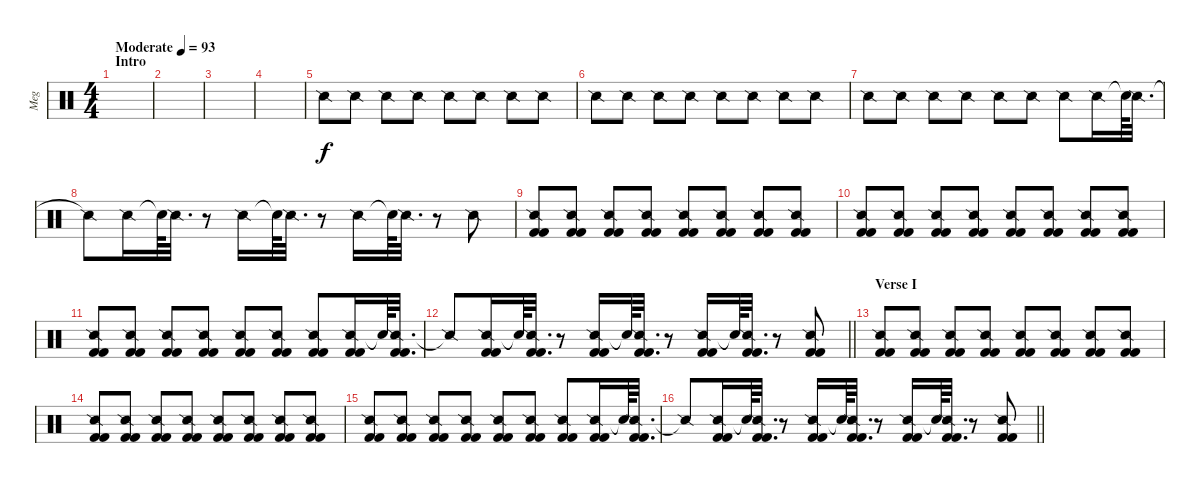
\track ("Meg" "Meg") {instrument percussion}
\staff {score}
\articulation defaults
\ts (4 4)
\section ("" "Intro")
\tempo (93 "Moderate")
\clef neutral
\ks c
|
|
|
|
"Snare (side stick) 2".8 "Snare (side stick) 2".8 "Snare (side stick) 2".8 "Snare (side stick) 2".8 "Snare (side stick) 2".8 "Snare (side stick) 2".8 "Snare (side stick) 2".8 "Snare (side stick) 2".8 |
"Snare (side stick) 2".8 "Snare (side stick) 2".8 "Snare (side stick) 2".8 "Snare (side stick) 2".8 "Snare (side stick) 2".8 "Snare (side stick) 2".8 "Snare (side stick) 2".8 "Snare (side stick) 2".8 |
"Snare (side stick) 2".8 "Snare (side stick) 2".8 "Snare (side stick) 2".8 "Snare (side stick) 2".8 "Snare (side stick) 2".8 "Snare (side stick) 2".8 "Snare (side stick) 2".8 "Snare (side stick) 2".16 "Snare (hit)"{t}.64 "Snare (side stick) 2".32{d} |
"Snare (side stick) 2"{t}.8 "Snare (side stick) 2".16 "Snare (hit)"{t}.64 "Snare (side stick) 2".32{d} r.8 "Snare (side stick) 2".16 "Snare (hit)"{t}.64 "Snare (side stick) 2".32{d} r.8 "Snare (side stick) 2".16 "Snare (hit)"{t}.64 "Snare (side stick) 2".32{d} r.8 "Snare (side stick) 2".8 |
("Snare (side stick) 2" "Kick (hit) 2" "Kick (hit) 2").8 ("Snare (side stick) 2" "Kick (hit) 2" "Kick (hit) 2").8 ("Snare (side stick) 2" "Kick (hit) 2" "Kick (hit) 2").8 ("Snare (side stick) 2" "Kick (hit) 2" "Kick (hit) 2").8 ("Snare (side stick) 2" "Kick (hit) 2" "Kick (hit) 2").8 ("Snare (side stick) 2" "Kick (hit) 2" "Kick (hit) 2").8 ("Snare (side stick) 2" "Kick (hit) 2" "Kick (hit) 2").8 ("Snare (side stick) 2" "Kick (hit) 2" "Kick (hit) 2").8 |
("Snare (side stick) 2" "Kick (hit) 2" "Kick (hit) 2").8 ("Snare (side stick) 2" "Kick (hit) 2" "Kick (hit) 2").8 ("Snare (side stick) 2" "Kick (hit) 2" "Kick (hit) 2").8 ("Snare (side stick) 2" "Kick (hit) 2" "Kick (hit) 2").8 ("Snare (side stick) 2" "Kick (hit) 2" "Kick (hit) 2").8 ("Snare (side stick) 2" "Kick (hit) 2" "Kick (hit) 2").8 ("Snare (side stick) 2" "Kick (hit) 2" "Kick (hit) 2").8 ("Snare (side stick) 2" "Kick (hit) 2" "Kick (hit) 2").8 |
("Snare (side stick) 2" "Kick (hit) 2" "Kick (hit) 2").8 ("Snare (side stick) 2" "Kick (hit) 2" "Kick (hit) 2").8 ("Snare (side stick) 2" "Kick (hit) 2" "Kick (hit) 2").8 ("Snare (side stick) 2" "Kick (hit) 2" "Kick (hit) 2").8 ("Snare (side stick) 2" "Kick (hit) 2" "Kick (hit) 2").8 ("Snare (side stick) 2" "Kick (hit) 2" "Kick (hit) 2").8 ("Snare (side stick) 2" "Kick (hit) 2" "Kick (hit) 2").8 ("Snare (side stick) 2" "Kick (hit) 2" "Kick (hit) 2").16 "Snare (hit)"{t}.64 ("Snare (side stick) 2" "Kick (hit) 2" "Kick (hit) 2").32{d} |
\barLineRight lightlight "Snare (side stick) 2"{t}.8
("Snare (side stick) 2" "Kick (hit) 2" "Kick (hit) 2").16 "Snare (hit)"{t}.64 ("Snare (side stick) 2" "Kick (hit) 2" "Kick (hit) 2").32{d} r.8 ("Snare (side stick) 2" "Kick (hit) 2" "Kick (hit) 2").16 "Snare (hit)"{t}.64 ("Snare (side stick) 2" "Kick (hit) 2" "Kick (hit) 2").32{d} r.8 ("Snare (side stick) 2" "Kick (hit) 2" "Kick (hit) 2").16 "Snare (hit)"{t}.64 ("Snare (side stick) 2" "Kick (hit) 2" "Kick (hit) 2").32{d} r.8 ("Snare (side stick) 2" "Kick (hit) 2" "Kick (hit) 2").8 |
\section ("" "Verse I")
("Snare (side stick) 2" "Kick (hit) 2" "Kick (hit) 2").8 ("Snare (side stick) 2" "Kick (hit) 2" "Kick (hit) 2").8 ("Snare (side stick) 2" "Kick (hit) 2" "Kick (hit) 2").8 ("Snare (side stick) 2" "Kick (hit) 2" "Kick (hit) 2").8 ("Snare (side stick) 2" "Kick (hit) 2" "Kick (hit) 2").8 ("Snare (side stick) 2" "Kick (hit) 2" "Kick (hit) 2").8 ("Snare (side stick) 2" "Kick (hit) 2" "Kick (hit) 2").8 ("Snare (side stick) 2" "Kick (hit) 2" "Kick (hit) 2").8 |
("Snare (side stick) 2" "Kick (hit) 2" "Kick (hit) 2").8 ("Snare (side stick) 2" "Kick (hit) 2" "Kick (hit) 2").8 ("Snare (side stick) 2" "Kick (hit) 2" "Kick (hit) 2").8 ("Snare (side stick) 2" "Kick (hit) 2" "Kick (hit) 2").8 ("Snare (side stick) 2" "Kick (hit) 2" "Kick (hit) 2").8 ("Snare (side stick) 2" "Kick (hit) 2" "Kick (hit) 2").8 ("Snare (side stick) 2" "Kick (hit) 2" "Kick (hit) 2").8 ("Snare (side stick) 2" "Kick (hit) 2" "Kick (hit) 2").8 |
("Snare (side stick) 2" "Kick (hit) 2" "Kick (hit) 2").8 ("Snare (side stick) 2" "Kick (hit) 2" "Kick (hit) 2").8 ("Snare (side stick) 2" "Kick (hit) 2" "Kick (hit) 2").8 ("Snare (side stick) 2" "Kick (hit) 2" "Kick (hit) 2").8 ("Snare (side stick) 2" "Kick (hit) 2" "Kick (hit) 2").8 ("Snare (side stick) 2" "Kick (hit) 2" "Kick (hit) 2").8 ("Snare (side stick) 2" "Kick (hit) 2" "Kick (hit) 2").8 ("Snare (side stick) 2" "Kick (hit) 2" "Kick (hit) 2").16 "Snare (hit)"{t}.64 ("Snare (side stick) 2" "Kick (hit) 2" "Kick (hit) 2").32{d} |
\barLineRight lightlight "Snare (side stick) 2"{t}.8
("Snare (side stick) 2" "Kick (hit) 2" "Kick (hit) 2").16 "Snare (hit)"{t}.64 ("Snare (side stick) 2" "Kick (hit) 2" "Kick (hit) 2").32{d} r.8 ("Snare (side stick) 2" "Kick (hit) 2" "Kick (hit) 2").16 "Snare (hit)"{t}.64 ("Snare (side stick) 2" "Kick (hit) 2" "Kick (hit) 2").32{d} r.8 ("Snare (side stick) 2" "Kick (hit) 2" "Kick (hit) 2").16 "Snare (hit)"{t}.64 ("Snare (side stick) 2" "Kick (hit) 2" "Kick (hit) 2").32{d} r.8 ("Snare (side stick) 2" "Kick (hit) 2" "Kick (hit) 2").8
